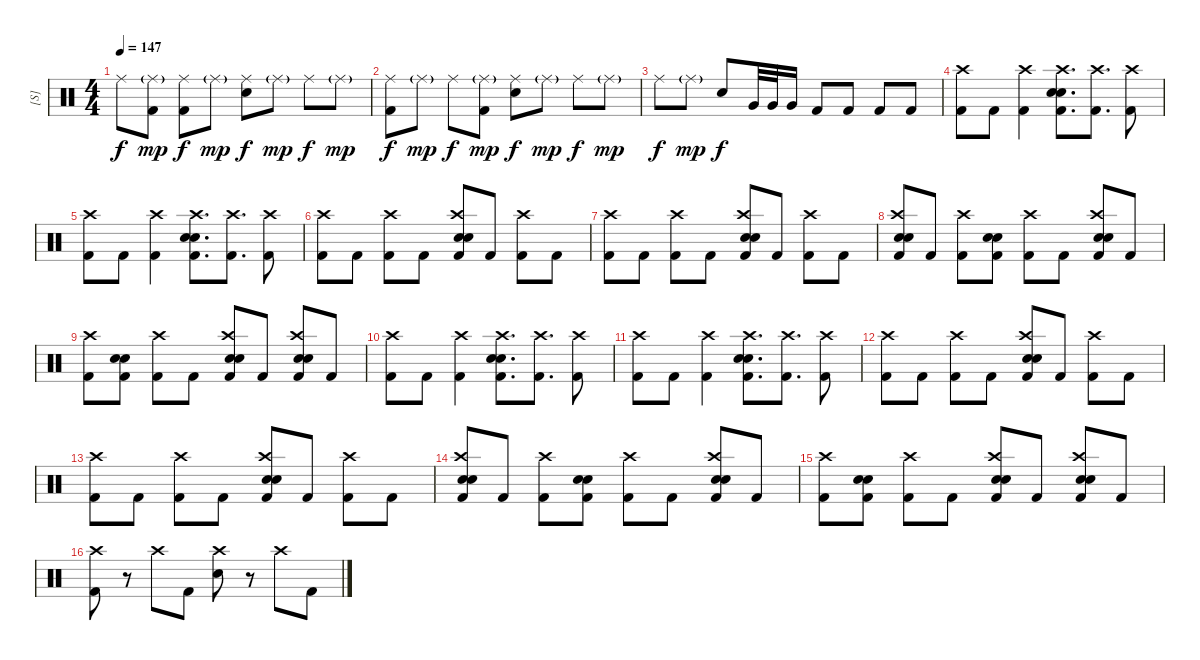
\track ("[S]" "[S]") {instrument percussion}
\staff {score}
\articulation defaults
\ts (4 4)
\tempo 147
\clef neutral
\ks c "Ride (middle)".8{dy f}
("Ride (middle)"{g} "Kick (hit) 2").8{dy mp} ("Ride (middle)" "Kick (hit) 2").8{dy f} "Ride (middle)"{g}.8{dy mp} ("Ride (middle)" "Snare (hit) 2").8{dy f} "Ride (middle)"{g}.8{dy mp} "Ride (middle)".8{dy f} "Ride (middle)"{g}.8{dy mp} |
("Ride (middle)" "Kick (hit) 2").8{dy f} "Ride (middle)"{g}.8{dy mp} "Ride (middle)".8{dy f} ("Ride (middle)"{g} "Kick (hit) 2").8{dy mp} ("Ride (middle)" "Snare (hit) 2").8{dy f} "Ride (middle)"{g}.8{dy mp} "Ride (middle)".8{dy f} "Ride (middle)"{g}.8{dy mp} |
"Ride (middle)".8{dy f} "Ride (middle)"{g}.8{dy mp} "Snare (hit) 2".8{dy f} "Very Low Tom (hit)".32 "Very Low Tom (hit)".32 "Very Low Tom (hit)".16 "Kick (hit) 2".8 "Kick (hit) 2".8 "Kick (hit) 2".8 "Kick (hit) 2".8 |
("Crash high (hit)" "Kick (hit) 2").8 "Kick (hit) 2".8 ("Crash high (hit)" "Kick (hit) 2").4 ("Crash high (hit)" "Electric Snare (hit)" "Snare (hit) 2" "Kick (hit) 2").8{d} ("Crash high (hit)" "Kick (hit) 2").8{d} ("Crash high (hit)" "Kick (hit) 2").8 |
("Crash high (hit)" "Kick (hit) 2").8 "Kick (hit) 2".8 ("Crash high (hit)" "Kick (hit) 2").4 ("Crash high (hit)" "Snare (hit) 2" "Electric Snare (hit)" "Kick (hit) 2").8{d} ("Crash high (hit)" "Kick (hit) 2").8{d} ("Crash high (hit)" "Kick (hit) 2").8 |
("Crash high (hit)" "Kick (hit) 2").8 "Kick (hit) 2".8 ("Crash high (hit)" "Kick (hit) 2").8 "Kick (hit) 2".8 ("Crash high (hit)" "Snare (hit) 2" "Electric Snare (hit)" "Kick (hit) 2").8 "Kick (hit) 2".8 ("Crash high (hit)" "Kick (hit) 2").8 "Kick (hit) 2".8 |
("Crash high (hit)" "Kick (hit) 2").8 "Kick (hit) 2".8 ("Crash high (hit)" "Kick (hit) 2").8 "Kick (hit) 2".8 ("Crash high (hit)" "Electric Snare (hit)" "Snare (hit) 2" "Kick (hit) 2").8 "Kick (hit) 2".8 ("Crash high (hit)" "Kick (hit) 2").8 "Kick (hit) 2".8 |
("Crash high (hit)" "Snare (hit) 2" "Electric Snare (hit)" "Kick (hit) 2").8 "Kick (hit) 2".8 ("Crash high (hit)" "Kick (hit) 2").8 ("Snare (hit) 2" "Electric Snare (hit)" "Kick (hit) 2").8 ("Crash high (hit)" "Kick (hit) 2").8 "Kick (hit) 2".8 ("Crash high (hit)" "Snare (hit) 2" "Electric Snare (hit)" "Kick (hit) 2").8 "Kick (hit) 2".8 |
("Crash high (hit)" "Kick (hit) 2").8 ("Snare (hit) 2" "Electric Snare (hit)" "Kick (hit) 2").8 ("Crash high (hit)" "Kick (hit) 2").8 "Kick (hit) 2".8 ("Crash high (hit)" "Snare (hit) 2" "Electric Snare (hit)" "Kick (hit) 2").8 "Kick (hit) 2".8 ("Crash high (hit)" "Snare (hit) 2" "Electric Snare (hit)" "Kick (hit) 2").8 "Kick (hit) 2".8 |
("Crash high (hit)" "Kick (hit) 2").8 "Kick (hit) 2".8 ("Crash high (hit)" "Kick (hit) 2").4 ("Crash high (hit)" "Electric Snare (hit)" "Snare (hit) 2" "Kick (hit) 2").8{d} ("Crash high (hit)" "Kick (hit) 2").8{d} ("Crash high (hit)" "Kick (hit) 2").8 |
("Crash high (hit)" "Kick (hit) 2").8 "Kick (hit) 2".8 ("Crash high (hit)" "Kick (hit) 2").4 ("Crash high (hit)" "Snare (hit) 2" "Electric Snare (hit)" "Kick (hit) 2").8{d} ("Crash high (hit)" "Kick (hit) 2").8{d} ("Crash high (hit)" "Kick (hit) 2").8 |
("Crash high (hit)" "Kick (hit) 2").8 "Kick (hit) 2".8 ("Crash high (hit)" "Kick (hit) 2").8 "Kick (hit) 2".8 ("Crash high (hit)" "Snare (hit) 2" "Electric Snare (hit)" "Kick (hit) 2").8 "Kick (hit) 2".8 ("Crash high (hit)" "Kick (hit) 2").8 "Kick (hit) 2".8 |
("Crash high (hit)" "Kick (hit) 2").8 "Kick (hit) 2".8 ("Crash high (hit)" "Kick (hit) 2").8 "Kick (hit) 2".8 ("Crash high (hit)" "Electric Snare (hit)" "Snare (hit) 2" "Kick (hit) 2").8 "Kick (hit) 2".8 ("Crash high (hit)" "Kick (hit) 2").8 "Kick (hit) 2".8 |
("Crash high (hit)" "Snare (hit) 2" "Electric Snare (hit)" "Kick (hit) 2").8 "Kick (hit) 2".8 ("Crash high (hit)" "Kick (hit) 2").8 ("Snare (hit) 2" "Electric Snare (hit)" "Kick (hit) 2").8 ("Crash high (hit)" "Kick (hit) 2").8 "Kick (hit) 2".8 ("Crash high (hit)" "Snare (hit) 2" "Electric Snare (hit)" "Kick (hit) 2").8 "Kick (hit) 2".8 |
("Crash high (hit)" "Kick (hit) 2").8 ("Snare (hit) 2" "Electric Snare (hit)" "Kick (hit) 2").8 ("Crash high (hit)" "Kick (hit) 2").8 "Kick (hit) 2".8 ("Crash high (hit)" "Snare (hit) 2" "Electric Snare (hit)" "Kick (hit) 2").8 "Kick (hit) 2".8 ("Crash high (hit)" "Snare (hit) 2" "Electric Snare (hit)" "Kick (hit) 2").8 "Kick (hit) 2".8 |
("Crash high (hit)" "Kick (hit) 2").8 r.8 "Crash high (hit)".8 "Kick (hit) 2".8 ("Crash high (hit)" "Electric Snare (hit)").8 r.8 "Crash high (hit)".8 "Kick (hit) 2".8
